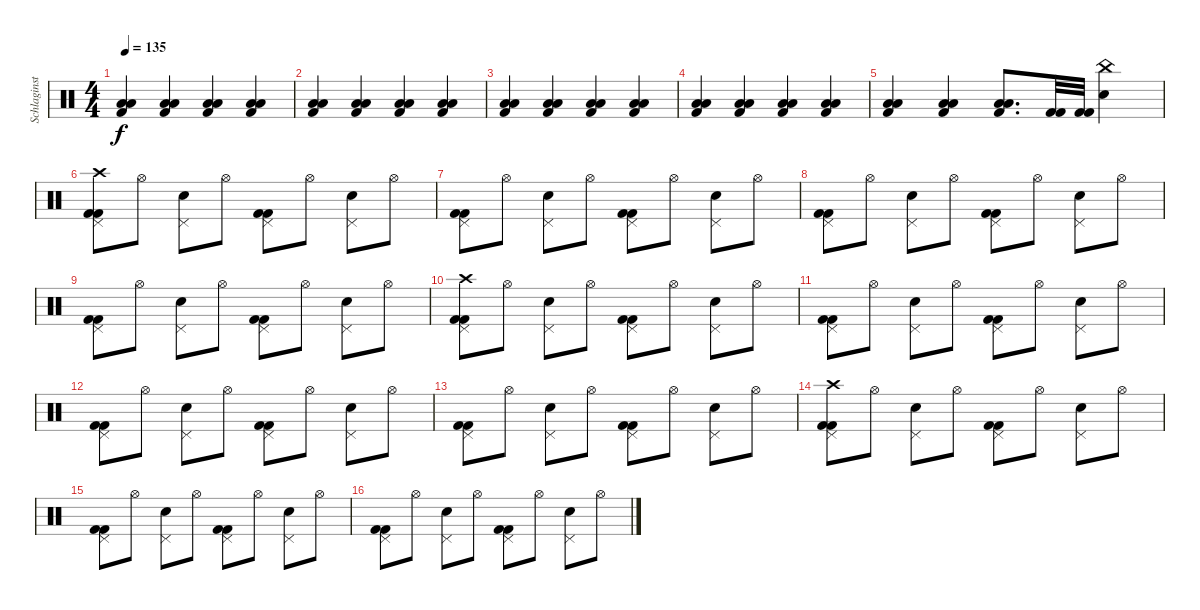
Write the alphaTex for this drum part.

\track ("Schlaginstrumente - Auswahl" "Schlaginst") {instrument percussion}
\staff {score}
\articulation defaults
\ts (4 4)
\tempo 135
\clef neutral
\ks c
("Low Tom (hit)" "Low Floor Tom (hit)" "Kick (hit) 2").4{dy f} ("Low Tom (hit)" "Low Floor Tom (hit)" "Kick (hit) 2").4 ("Low Tom (hit)" "Low Floor Tom (hit)" "Kick (hit) 2").4 ("Low Tom (hit)" "Low Floor Tom (hit)" "Kick (hit) 2").4 |
("Low Tom (hit)" "Low Floor Tom (hit)" "Kick (hit) 2").4 ("Low Tom (hit)" "Low Floor Tom (hit)" "Kick (hit) 2").4 ("Low Tom (hit)" "Low Floor Tom (hit)" "Kick (hit) 2").4 ("Low Tom (hit)" "Low Floor Tom (hit)" "Kick (hit) 2").4 |
("Low Tom (hit)" "Low Floor Tom (hit)" "Kick (hit) 2").4 ("Low Tom (hit)" "Low Floor Tom (hit)" "Kick (hit) 2").4 ("Low Tom (hit)" "Low Floor Tom (hit)" "Kick (hit) 2").4 ("Low Tom (hit)" "Low Floor Tom (hit)" "Kick (hit) 2").4 |
("Low Tom (hit)" "Low Floor Tom (hit)" "Kick (hit) 2").4 ("Low Tom (hit)" "Low Floor Tom (hit)" "Kick (hit) 2").4 ("Low Tom (hit)" "Low Floor Tom (hit)" "Kick (hit) 2").4 ("Low Tom (hit)" "Low Floor Tom (hit)" "Kick (hit) 2").4 |
("Low Tom (hit)" "Low Floor Tom (hit)" "Kick (hit) 2").4 ("Low Tom (hit)" "Low Floor Tom (hit)" "Kick (hit) 2").4 ("Low Tom (hit)" "Low Floor Tom (hit)" "Kick (hit) 2").8{d} ("Kick (hit) 2" "Kick (hit) 2").32 ("Kick (hit) 2" "Kick (hit) 2").32 ("China (hit)" "Snare (hit) 2").4 |
("Crash high (hit)" "Kick (hit) 2" "Kick (hit) 2" "Pedal Hi-Hat (hit)").8 "Hi-Hat (open)".8 ("Snare (hit) 2" "Pedal Hi-Hat (hit)").8 "Hi-Hat (open)".8 ("Kick (hit) 2" "Kick (hit) 2" "Pedal Hi-Hat (hit)").8 "Hi-Hat (open)".8 ("Snare (hit) 2" "Pedal Hi-Hat (hit)").8 "Hi-Hat (open)".8 |
("Kick (hit) 2" "Kick (hit) 2" "Pedal Hi-Hat (hit)").8 "Hi-Hat (open)".8 ("Snare (hit) 2" "Pedal Hi-Hat (hit)").8 "Hi-Hat (open)".8 ("Kick (hit) 2" "Kick (hit) 2" "Pedal Hi-Hat (hit)").8 "Hi-Hat (open)".8 ("Snare (hit) 2" "Pedal Hi-Hat (hit)").8 "Hi-Hat (open)".8 |
("Kick (hit) 2" "Kick (hit) 2" "Pedal Hi-Hat (hit)").8 "Hi-Hat (open)".8 ("Snare (hit) 2" "Pedal Hi-Hat (hit)").8 "Hi-Hat (open)".8 ("Kick (hit) 2" "Kick (hit) 2" "Pedal Hi-Hat (hit)").8 "Hi-Hat (open)".8 ("Snare (hit) 2" "Pedal Hi-Hat (hit)").8 "Hi-Hat (open)".8 |
("Kick (hit) 2" "Kick (hit) 2" "Pedal Hi-Hat (hit)").8 "Hi-Hat (open)".8 ("Snare (hit) 2" "Pedal Hi-Hat (hit)").8 "Hi-Hat (open)".8 ("Kick (hit) 2" "Kick (hit) 2" "Pedal Hi-Hat (hit)").8 "Hi-Hat (open)".8 ("Snare (hit) 2" "Pedal Hi-Hat (hit)").8 "Hi-Hat (open)".8 |
("Crash high (hit)" "Kick (hit) 2" "Kick (hit) 2" "Pedal Hi-Hat (hit)").8 "Hi-Hat (open)".8 ("Snare (hit) 2" "Pedal Hi-Hat (hit)").8 "Hi-Hat (open)".8 ("Kick (hit) 2" "Kick (hit) 2" "Pedal Hi-Hat (hit)").8 "Hi-Hat (open)".8 ("Snare (hit) 2" "Pedal Hi-Hat (hit)").8 "Hi-Hat (open)".8 |
("Kick (hit) 2" "Kick (hit) 2" "Pedal Hi-Hat (hit)").8 "Hi-Hat (open)".8 ("Snare (hit) 2" "Pedal Hi-Hat (hit)").8 "Hi-Hat (open)".8 ("Kick (hit) 2" "Kick (hit) 2" "Pedal Hi-Hat (hit)").8 "Hi-Hat (open)".8 ("Snare (hit) 2" "Pedal Hi-Hat (hit)").8 "Hi-Hat (open)".8 |
("Kick (hit) 2" "Kick (hit) 2" "Pedal Hi-Hat (hit)").8 "Hi-Hat (open)".8 ("Snare (hit) 2" "Pedal Hi-Hat (hit)").8 "Hi-Hat (open)".8 ("Kick (hit) 2" "Kick (hit) 2" "Pedal Hi-Hat (hit)").8 "Hi-Hat (open)".8 ("Snare (hit) 2" "Pedal Hi-Hat (hit)").8 "Hi-Hat (open)".8 |
("Kick (hit) 2" "Kick (hit) 2" "Pedal Hi-Hat (hit)").8 "Hi-Hat (open)".8 ("Snare (hit) 2" "Pedal Hi-Hat (hit)").8 "Hi-Hat (open)".8 ("Kick (hit) 2" "Kick (hit) 2" "Pedal Hi-Hat (hit)").8 "Hi-Hat (open)".8 ("Snare (hit) 2" "Pedal Hi-Hat (hit)").8 "Hi-Hat (open)".8 |
("Crash high (hit)" "Kick (hit) 2" "Kick (hit) 2" "Pedal Hi-Hat (hit)").8 "Hi-Hat (open)".8 ("Snare (hit) 2" "Pedal Hi-Hat (hit)").8 "Hi-Hat (open)".8 ("Kick (hit) 2" "Kick (hit) 2" "Pedal Hi-Hat (hit)").8 "Hi-Hat (open)".8 ("Snare (hit) 2" "Pedal Hi-Hat (hit)").8 "Hi-Hat (open)".8 |
("Kick (hit) 2" "Kick (hit) 2" "Pedal Hi-Hat (hit)").8 "Hi-Hat (open)".8 ("Snare (hit) 2" "Pedal Hi-Hat (hit)").8 "Hi-Hat (open)".8 ("Kick (hit) 2" "Kick (hit) 2" "Pedal Hi-Hat (hit)").8 "Hi-Hat (open)".8 ("Snare (hit) 2" "Pedal Hi-Hat (hit)").8 "Hi-Hat (open)".8 |
("Kick (hit) 2" "Kick (hit) 2" "Pedal Hi-Hat (hit)").8 "Hi-Hat (open)".8 ("Snare (hit) 2" "Pedal Hi-Hat (hit)").8 "Hi-Hat (open)".8 ("Kick (hit) 2" "Kick (hit) 2" "Pedal Hi-Hat (hit)").8 "Hi-Hat (open)".8 ("Snare (hit) 2" "Pedal Hi-Hat (hit)").8 "Hi-Hat (open)".8
